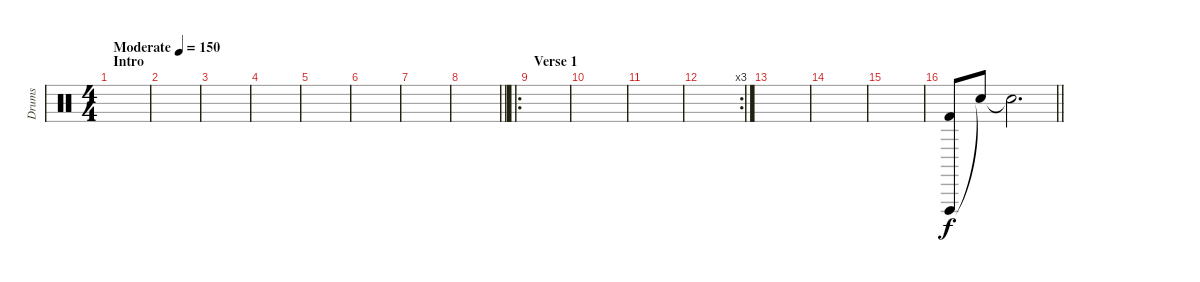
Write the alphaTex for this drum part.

\track ("Drums" "Drums") {instrument percussion}
\staff {score}
\articulation defaults
\ts (4 4)
\section ("" "Intro")
\tempo (150 "Moderate")
\clef neutral
\ks c
|
|
|
|
|
|
|
\barLineRight lightlight
|
\ro
\section ("" "Verse 1")
|
|
|
\rc 3
|
|
|
|
\barLineRight lightlight
("Vibraslap (hit)" "Kick (hit) 2").8 "Snare (hit)"{t}.8 "Snare (hit)"{t}.2{d}
